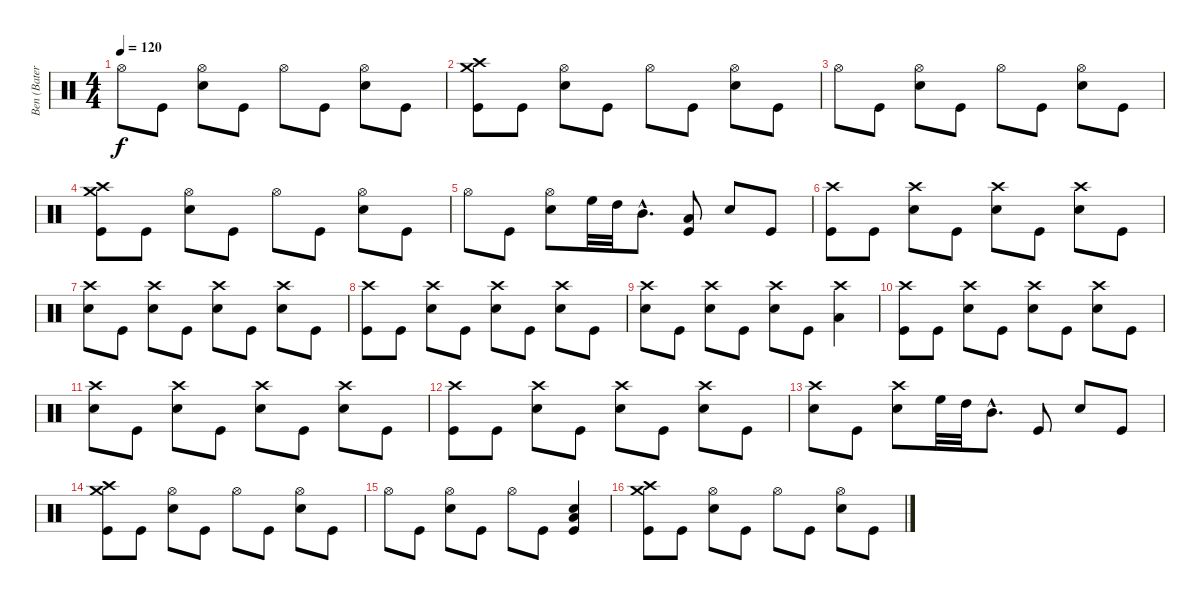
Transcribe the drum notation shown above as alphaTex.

\track ("Ben (Bateria)" "Ben (Bater") {instrument percussion}
\staff {score}
\articulation defaults
\ts (4 4)
\tempo 120
\clef neutral
\ks c "Hi-Hat (open)".8{dy f} "Kick (hit)".8
("Snare (hit) 2" "Hi-Hat (open)").8 "Kick (hit)".8 "Hi-Hat (open)".8 "Kick (hit)".8 ("Snare (hit) 2" "Hi-Hat (open)").8 "Kick (hit)".8 |
("Kick (hit)" "Crash high (hit)" "Crash medium (hit)").8 "Kick (hit)".8 ("Snare (hit) 2" "Hi-Hat (open)").8 "Kick (hit)".8 "Hi-Hat (open)".8 "Kick (hit)".8 ("Snare (hit) 2" "Hi-Hat (open)").8 "Kick (hit)".8 |
"Hi-Hat (open)".8 "Kick (hit)".8 ("Snare (hit) 2" "Hi-Hat (open)").8 "Kick (hit)".8 "Hi-Hat (open)".8 "Kick (hit)".8 ("Snare (hit) 2" "Hi-Hat (open)").8 "Kick (hit)".8 |
("Kick (hit)" "Crash high (hit)" "Crash medium (hit)").8 "Kick (hit)".8 ("Snare (hit) 2" "Hi-Hat (open)").8 "Kick (hit)".8 "Hi-Hat (open)".8 "Kick (hit)".8 ("Snare (hit) 2" "Hi-Hat (open)").8 "Kick (hit)".8 |
"Hi-Hat (open)".8 "Kick (hit)".8 ("Snare (hit) 2" "Hi-Hat (open)").8 "High Floor Tom (hit)".32 "High Tom (hit)".32 "Mid Tom (hit)"{hac}.8{d} ("Kick (hit)" "Low Floor Tom (hit)").8 "Snare (hit) 2".8 "Kick (hit)".8 |
("Kick (hit)" "Crash high (hit)").8 "Kick (hit)".8 ("Snare (hit) 2" "Crash high (hit)").8 "Kick (hit)".8 ("Snare (hit) 2" "Crash high (hit)").8 "Kick (hit)".8 ("Snare (hit) 2" "Crash high (hit)").8 "Kick (hit)".8 |
("Snare (hit) 2" "Crash high (hit)").8 "Kick (hit)".8 ("Snare (hit) 2" "Crash high (hit)").8 "Kick (hit)".8 ("Snare (hit) 2" "Crash high (hit)").8 "Kick (hit)".8 ("Snare (hit) 2" "Crash high (hit)").8 "Kick (hit)".8 |
("Kick (hit)" "Crash high (hit)").8 "Kick (hit)".8 ("Snare (hit) 2" "Crash high (hit)").8 "Kick (hit)".8 ("Snare (hit) 2" "Crash high (hit)").8 "Kick (hit)".8 ("Snare (hit) 2" "Crash high (hit)").8 "Kick (hit)".8 |
("Snare (hit) 2" "Crash high (hit)").8 "Kick (hit)".8 ("Snare (hit) 2" "Crash high (hit)").8 "Kick (hit)".8 ("Snare (hit) 2" "Crash high (hit)").8 "Kick (hit)".8 ("Low Tom (hit)" "Crash high (hit)").4 |
("Kick (hit)" "Crash high (hit)").8 "Kick (hit)".8 ("Snare (hit) 2" "Crash high (hit)").8 "Kick (hit)".8 ("Snare (hit) 2" "Crash high (hit)").8 "Kick (hit)".8 ("Snare (hit) 2" "Crash high (hit)").8 "Kick (hit)".8 |
("Snare (hit) 2" "Crash high (hit)").8 "Kick (hit)".8 ("Snare (hit) 2" "Crash high (hit)").8 "Kick (hit)".8 ("Snare (hit) 2" "Crash high (hit)").8 "Kick (hit)".8 ("Snare (hit) 2" "Crash high (hit)").8 "Kick (hit)".8 |
("Kick (hit)" "Crash high (hit)").8 "Kick (hit)".8 ("Snare (hit) 2" "Crash high (hit)").8 "Kick (hit)".8 ("Snare (hit) 2" "Crash high (hit)").8 "Kick (hit)".8 ("Snare (hit) 2" "Crash high (hit)").8 "Kick (hit)".8 |
("Snare (hit) 2" "Crash high (hit)").8 "Kick (hit)".8 ("Snare (hit) 2" "Crash high (hit)").8 "High Floor Tom (hit)".32 "High Tom (hit)".32 "Mid Tom (hit)"{hac}.8{d} "Kick (hit)".8 "Snare (hit) 2".8 "Kick (hit)".8 |
("Kick (hit)" "Crash high (hit)" "Crash medium (hit)").8 "Kick (hit)".8 ("Snare (hit) 2" "Hi-Hat (open)").8 "Kick (hit)".8 "Hi-Hat (open)".8 "Kick (hit)".8 ("Snare (hit) 2" "Hi-Hat (open)").8 "Kick (hit)".8 |
"Hi-Hat (open)".8 "Kick (hit)".8 ("Snare (hit) 2" "Hi-Hat (open)").8 "Kick (hit)".8 "Hi-Hat (open)".8 "Kick (hit)".8 ("Kick (hit)" "Snare (hit) 2" "Low Floor Tom (hit)").4 |
("Kick (hit)" "Crash high (hit)" "Crash medium (hit)").8 "Kick (hit)".8 ("Snare (hit) 2" "Hi-Hat (open)").8 "Kick (hit)".8 "Hi-Hat (open)".8 "Kick (hit)".8 ("Snare (hit) 2" "Hi-Hat (open)").8 "Kick (hit)".8
